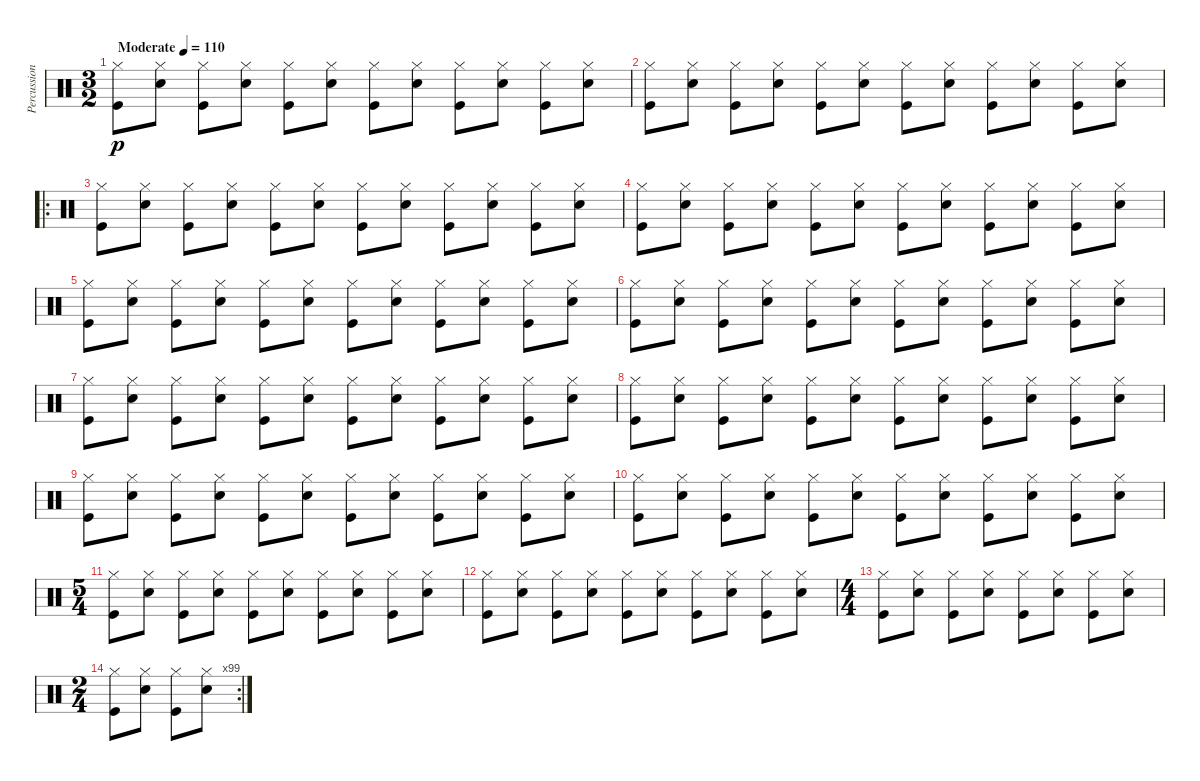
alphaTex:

\track ("Percussion" "Percussion") {instrument percussion}
\staff {score}
\articulation defaults
\ts (3 2)
\tempo (110 "Moderate")
\clef neutral
\ks c
("Hi-Hat (closed)" "Kick (hit)").8{dy p} ("Hi-Hat (closed)" "Snare (hit) 2").8 ("Hi-Hat (closed)" "Kick (hit)").8 ("Hi-Hat (closed)" "Snare (hit) 2").8 ("Hi-Hat (closed)" "Kick (hit)").8 ("Hi-Hat (closed)" "Snare (hit) 2").8 ("Hi-Hat (closed)" "Kick (hit)").8 ("Hi-Hat (closed)" "Snare (hit) 2").8 ("Hi-Hat (closed)" "Kick (hit)").8 ("Hi-Hat (closed)" "Snare (hit) 2").8 ("Hi-Hat (closed)" "Kick (hit)").8 ("Hi-Hat (closed)" "Snare (hit) 2").8 |
("Hi-Hat (closed)" "Kick (hit)").8 ("Hi-Hat (closed)" "Snare (hit) 2").8 ("Hi-Hat (closed)" "Kick (hit)").8 ("Hi-Hat (closed)" "Snare (hit) 2").8 ("Hi-Hat (closed)" "Kick (hit)").8 ("Hi-Hat (closed)" "Snare (hit) 2").8 ("Hi-Hat (closed)" "Kick (hit)").8 ("Hi-Hat (closed)" "Snare (hit) 2").8 ("Hi-Hat (closed)" "Kick (hit)").8 ("Hi-Hat (closed)" "Snare (hit) 2").8 ("Hi-Hat (closed)" "Kick (hit)").8 ("Hi-Hat (closed)" "Snare (hit) 2").8 |
\ro
("Hi-Hat (closed)" "Kick (hit)").8 ("Hi-Hat (closed)" "Snare (hit) 2").8 ("Hi-Hat (closed)" "Kick (hit)").8 ("Hi-Hat (closed)" "Snare (hit) 2").8 ("Hi-Hat (closed)" "Kick (hit)").8 ("Hi-Hat (closed)" "Snare (hit) 2").8 ("Hi-Hat (closed)" "Kick (hit)").8 ("Hi-Hat (closed)" "Snare (hit) 2").8 ("Hi-Hat (closed)" "Kick (hit)").8 ("Hi-Hat (closed)" "Snare (hit) 2").8 ("Hi-Hat (closed)" "Kick (hit)").8 ("Hi-Hat (closed)" "Snare (hit) 2").8 |
("Hi-Hat (closed)" "Kick (hit)").8 ("Hi-Hat (closed)" "Snare (hit) 2").8 ("Hi-Hat (closed)" "Kick (hit)").8 ("Hi-Hat (closed)" "Snare (hit) 2").8 ("Hi-Hat (closed)" "Kick (hit)").8 ("Hi-Hat (closed)" "Snare (hit) 2").8 ("Hi-Hat (closed)" "Kick (hit)").8 ("Hi-Hat (closed)" "Snare (hit) 2").8 ("Hi-Hat (closed)" "Kick (hit)").8 ("Hi-Hat (closed)" "Snare (hit) 2").8 ("Hi-Hat (closed)" "Kick (hit)").8 ("Hi-Hat (closed)" "Snare (hit) 2").8 |
("Hi-Hat (closed)" "Kick (hit)").8 ("Hi-Hat (closed)" "Snare (hit) 2").8 ("Hi-Hat (closed)" "Kick (hit)").8 ("Hi-Hat (closed)" "Snare (hit) 2").8 ("Hi-Hat (closed)" "Kick (hit)").8 ("Hi-Hat (closed)" "Snare (hit) 2").8 ("Hi-Hat (closed)" "Kick (hit)").8 ("Hi-Hat (closed)" "Snare (hit) 2").8 ("Hi-Hat (closed)" "Kick (hit)").8 ("Hi-Hat (closed)" "Snare (hit) 2").8 ("Hi-Hat (closed)" "Kick (hit)").8 ("Hi-Hat (closed)" "Snare (hit) 2").8 |
("Hi-Hat (closed)" "Kick (hit)").8 ("Hi-Hat (closed)" "Snare (hit) 2").8 ("Hi-Hat (closed)" "Kick (hit)").8 ("Hi-Hat (closed)" "Snare (hit) 2").8 ("Hi-Hat (closed)" "Kick (hit)").8 ("Hi-Hat (closed)" "Snare (hit) 2").8 ("Hi-Hat (closed)" "Kick (hit)").8 ("Hi-Hat (closed)" "Snare (hit) 2").8 ("Hi-Hat (closed)" "Kick (hit)").8 ("Hi-Hat (closed)" "Snare (hit) 2").8 ("Hi-Hat (closed)" "Kick (hit)").8 ("Hi-Hat (closed)" "Snare (hit) 2").8 |
("Hi-Hat (closed)" "Kick (hit)").8 ("Hi-Hat (closed)" "Snare (hit) 2").8 ("Hi-Hat (closed)" "Kick (hit)").8 ("Hi-Hat (closed)" "Snare (hit) 2").8 ("Hi-Hat (closed)" "Kick (hit)").8 ("Hi-Hat (closed)" "Snare (hit) 2").8 ("Hi-Hat (closed)" "Kick (hit)").8 ("Hi-Hat (closed)" "Snare (hit) 2").8 ("Hi-Hat (closed)" "Kick (hit)").8 ("Hi-Hat (closed)" "Snare (hit) 2").8 ("Hi-Hat (closed)" "Kick (hit)").8 ("Hi-Hat (closed)" "Snare (hit) 2").8 |
("Hi-Hat (closed)" "Kick (hit)").8 ("Hi-Hat (closed)" "Snare (hit) 2").8 ("Hi-Hat (closed)" "Kick (hit)").8 ("Hi-Hat (closed)" "Snare (hit) 2").8 ("Hi-Hat (closed)" "Kick (hit)").8 ("Hi-Hat (closed)" "Snare (hit) 2").8 ("Hi-Hat (closed)" "Kick (hit)").8 ("Hi-Hat (closed)" "Snare (hit) 2").8 ("Hi-Hat (closed)" "Kick (hit)").8 ("Hi-Hat (closed)" "Snare (hit) 2").8 ("Hi-Hat (closed)" "Kick (hit)").8 ("Hi-Hat (closed)" "Snare (hit) 2").8 |
("Hi-Hat (closed)" "Kick (hit)").8 ("Hi-Hat (closed)" "Snare (hit) 2").8 ("Hi-Hat (closed)" "Kick (hit)").8 ("Hi-Hat (closed)" "Snare (hit) 2").8 ("Hi-Hat (closed)" "Kick (hit)").8 ("Hi-Hat (closed)" "Snare (hit) 2").8 ("Hi-Hat (closed)" "Kick (hit)").8 ("Hi-Hat (closed)" "Snare (hit) 2").8 ("Hi-Hat (closed)" "Kick (hit)").8 ("Hi-Hat (closed)" "Snare (hit) 2").8 ("Hi-Hat (closed)" "Kick (hit)").8 ("Hi-Hat (closed)" "Snare (hit) 2").8 |
("Hi-Hat (closed)" "Kick (hit)").8 ("Hi-Hat (closed)" "Snare (hit) 2").8 ("Hi-Hat (closed)" "Kick (hit)").8 ("Hi-Hat (closed)" "Snare (hit) 2").8 ("Hi-Hat (closed)" "Kick (hit)").8 ("Hi-Hat (closed)" "Snare (hit) 2").8 ("Hi-Hat (closed)" "Kick (hit)").8 ("Hi-Hat (closed)" "Snare (hit) 2").8 ("Hi-Hat (closed)" "Kick (hit)").8 ("Hi-Hat (closed)" "Snare (hit) 2").8 ("Hi-Hat (closed)" "Kick (hit)").8 ("Hi-Hat (closed)" "Snare (hit) 2").8 |
\ts (5 4)
("Hi-Hat (closed)" "Kick (hit)").8 ("Hi-Hat (closed)" "Snare (hit) 2").8 ("Hi-Hat (closed)" "Kick (hit)").8 ("Hi-Hat (closed)" "Snare (hit) 2").8 ("Hi-Hat (closed)" "Kick (hit)").8 ("Hi-Hat (closed)" "Snare (hit) 2").8 ("Hi-Hat (closed)" "Kick (hit)").8 ("Hi-Hat (closed)" "Snare (hit) 2").8 ("Hi-Hat (closed)" "Kick (hit)").8 ("Hi-Hat (closed)" "Snare (hit) 2").8 |
("Hi-Hat (closed)" "Kick (hit)").8 ("Hi-Hat (closed)" "Snare (hit) 2").8 ("Hi-Hat (closed)" "Kick (hit)").8 ("Hi-Hat (closed)" "Snare (hit) 2").8 ("Hi-Hat (closed)" "Kick (hit)").8 ("Hi-Hat (closed)" "Snare (hit) 2").8 ("Hi-Hat (closed)" "Kick (hit)").8 ("Hi-Hat (closed)" "Snare (hit) 2").8 ("Hi-Hat (closed)" "Kick (hit)").8 ("Hi-Hat (closed)" "Snare (hit) 2").8 |
\ts (4 4)
("Hi-Hat (closed)" "Kick (hit)").8 ("Hi-Hat (closed)" "Snare (hit) 2").8 ("Hi-Hat (closed)" "Kick (hit)").8 ("Hi-Hat (closed)" "Snare (hit) 2").8 ("Hi-Hat (closed)" "Kick (hit)").8 ("Hi-Hat (closed)" "Snare (hit) 2").8 ("Hi-Hat (closed)" "Kick (hit)").8 ("Hi-Hat (closed)" "Snare (hit) 2").8 |
\rc 99
\ts (2 4)
("Hi-Hat (closed)" "Kick (hit)").8 ("Hi-Hat (closed)" "Snare (hit) 2").8 ("Hi-Hat (closed)" "Kick (hit)").8 ("Hi-Hat (closed)" "Snare (hit) 2").8
